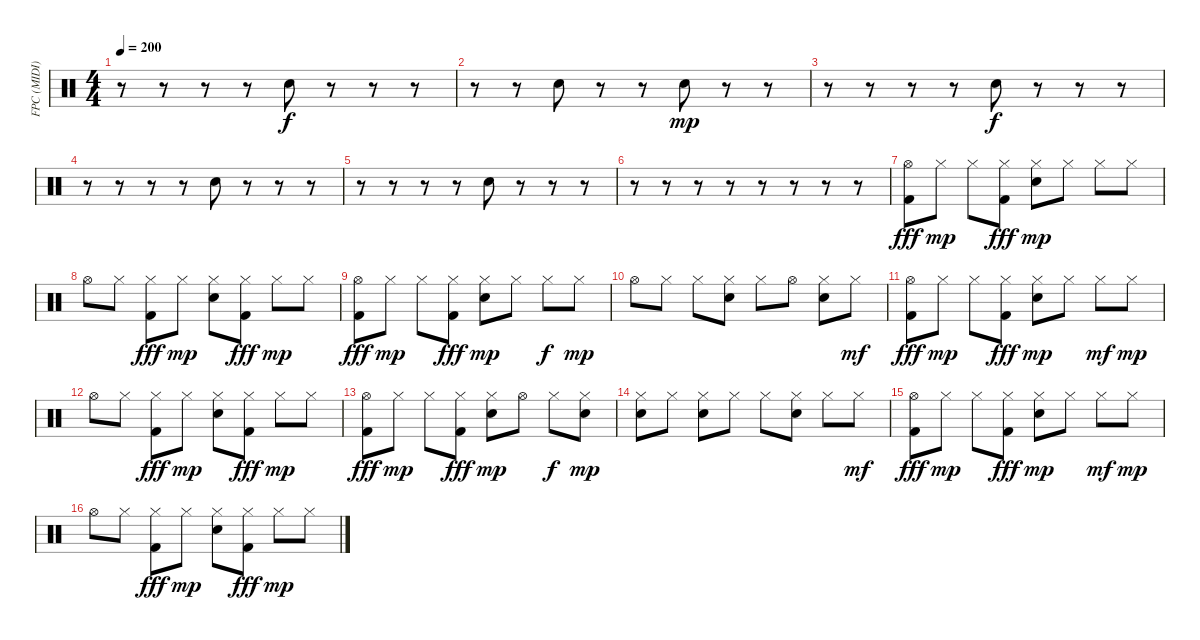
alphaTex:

\track ("FPC (MIDI)" "FPC (MIDI)") {instrument percussion}
\staff {score}
\articulation defaults
\ts (4 4)
\tempo 200
\clef neutral
\ks c
r.8{dy f} r.8 r.8 r.8 "Hand Clap (hit)".8 r.8 r.8 r.8 |
r.8 r.8 "Hand Clap (hit)".8 r.8 r.8 "Hand Clap (hit)".8{dy mp} r.8 r.8 |
r.8 r.8 r.8 r.8 "Hand Clap (hit)".8{dy f} r.8 r.8 r.8 |
r.8 r.8 r.8 r.8 "Hand Clap (hit)".8 r.8 r.8 r.8 |
r.8 r.8 r.8 r.8 "Hand Clap (hit)".8 r.8 r.8 r.8 |
r.8 r.8 r.8 r.8 r.8 r.8 r.8 r.8 |
("Hi-Hat (open)" "Kick (hit) 2").8{dy fff} "Hi-Hat (closed)".8{dy mp} "Hi-Hat (closed)".8 ("Hi-Hat (closed)" "Kick (hit) 2").8{dy fff} ("Hi-Hat (closed)" "Electric Snare (hit)").8{dy mp} "Hi-Hat (closed)".8 "Hi-Hat (closed)".8 "Hi-Hat (closed)".8 |
"Hi-Hat (open)".8 "Hi-Hat (closed)".8 ("Hi-Hat (closed)" "Kick (hit) 2").8{dy fff} "Hi-Hat (closed)".8{dy mp} ("Hi-Hat (closed)" "Electric Snare (hit)").8 ("Hi-Hat (closed)" "Kick (hit) 2").8{dy fff} "Hi-Hat (closed)".8{dy mp} "Hi-Hat (closed)".8 |
("Hi-Hat (open)" "Kick (hit) 2").8{dy fff} "Hi-Hat (closed)".8{dy mp} "Hi-Hat (closed)".8 ("Hi-Hat (closed)" "Kick (hit) 2").8{dy fff} ("Hi-Hat (closed)" "Electric Snare (hit)").8{dy mp} "Hi-Hat (closed)".8 "Hi-Hat (closed)".8{dy f} "Hi-Hat (closed)".8{dy mp} |
"Hi-Hat (open)".8 "Hi-Hat (closed)".8 "Hi-Hat (closed)".8 ("Hi-Hat (closed)" "Electric Snare (hit)").8 "Hi-Hat (closed)".8 "Hi-Hat (open)".8 ("Hi-Hat (closed)" "Electric Snare (hit)").8 "Hi-Hat (closed)".8{dy mf} |
("Hi-Hat (open)" "Kick (hit) 2").8{dy fff} "Hi-Hat (closed)".8{dy mp} "Hi-Hat (closed)".8 ("Hi-Hat (closed)" "Kick (hit) 2").8{dy fff} ("Hi-Hat (closed)" "Electric Snare (hit)").8{dy mp} "Hi-Hat (closed)".8 "Hi-Hat (closed)".8{dy mf} "Hi-Hat (closed)".8{dy mp} |
"Hi-Hat (open)".8 "Hi-Hat (closed)".8 ("Hi-Hat (closed)" "Kick (hit) 2").8{dy fff} "Hi-Hat (closed)".8{dy mp} ("Hi-Hat (closed)" "Electric Snare (hit)").8 ("Hi-Hat (closed)" "Kick (hit) 2").8{dy fff} "Hi-Hat (closed)".8{dy mp} "Hi-Hat (closed)".8 |
("Hi-Hat (open)" "Kick (hit) 2").8{dy fff} "Hi-Hat (closed)".8{dy mp} "Hi-Hat (closed)".8 ("Hi-Hat (closed)" "Kick (hit) 2").8{dy fff} ("Hi-Hat (closed)" "Electric Snare (hit)").8{dy mp} "Hi-Hat (open)".8 "Hi-Hat (closed)".8{dy f} ("Hi-Hat (closed)" "Electric Snare (hit)").8{dy mp} |
("Hi-Hat (closed)" "Electric Snare (hit)").8 "Hi-Hat (closed)".8 ("Hi-Hat (closed)" "Electric Snare (hit)").8 "Hi-Hat (closed)".8 "Hi-Hat (closed)".8 ("Hi-Hat (closed)" "Electric Snare (hit)").8 "Hi-Hat (closed)".8 "Hi-Hat (closed)".8{dy mf} |
("Hi-Hat (open)" "Kick (hit) 2").8{dy fff} "Hi-Hat (closed)".8{dy mp} "Hi-Hat (closed)".8 ("Hi-Hat (closed)" "Kick (hit) 2").8{dy fff} ("Hi-Hat (closed)" "Electric Snare (hit)").8{dy mp} "Hi-Hat (closed)".8 "Hi-Hat (closed)".8{dy mf} "Hi-Hat (closed)".8{dy mp} |
"Hi-Hat (open)".8 "Hi-Hat (closed)".8 ("Hi-Hat (closed)" "Kick (hit) 2").8{dy fff} "Hi-Hat (closed)".8{dy mp} ("Hi-Hat (closed)" "Electric Snare (hit)").8 ("Hi-Hat (closed)" "Kick (hit) 2").8{dy fff} "Hi-Hat (closed)".8{dy mp} "Hi-Hat (closed)".8
